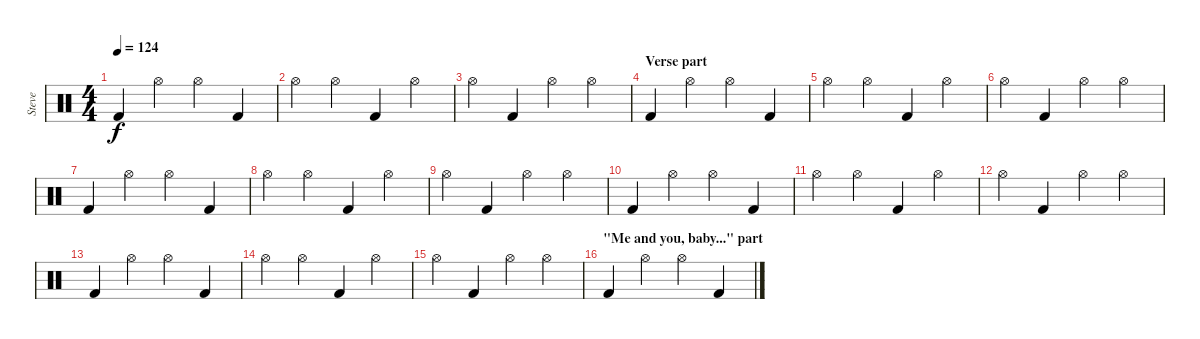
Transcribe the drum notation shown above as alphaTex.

\track ("Steve" "Steve") {instrument percussion}
\staff {score}
\articulation defaults
\ts (4 4)
\tempo 124
\clef neutral
\ks c "Kick (hit) 2".4{dy f} "Hi-Hat (open)".4 "Hi-Hat (open)".4 "Kick (hit) 2".4
|
"Hi-Hat (open)".4 "Hi-Hat (open)".4 "Kick (hit) 2".4 "Hi-Hat (open)".4 |
"Hi-Hat (open)".4 "Kick (hit) 2".4 "Hi-Hat (open)".4 "Hi-Hat (open)".4 |
\section ("" "Verse part")
"Kick (hit) 2".4 "Hi-Hat (open)".4 "Hi-Hat (open)".4 "Kick (hit) 2".4 |
"Hi-Hat (open)".4 "Hi-Hat (open)".4 "Kick (hit) 2".4 "Hi-Hat (open)".4 |
"Hi-Hat (open)".4 "Kick (hit) 2".4 "Hi-Hat (open)".4 "Hi-Hat (open)".4 |
"Kick (hit) 2".4 "Hi-Hat (open)".4 "Hi-Hat (open)".4 "Kick (hit) 2".4 |
"Hi-Hat (open)".4 "Hi-Hat (open)".4 "Kick (hit) 2".4 "Hi-Hat (open)".4 |
"Hi-Hat (open)".4 "Kick (hit) 2".4 "Hi-Hat (open)".4 "Hi-Hat (open)".4 |
"Kick (hit) 2".4 "Hi-Hat (open)".4 "Hi-Hat (open)".4 "Kick (hit) 2".4 |
"Hi-Hat (open)".4 "Hi-Hat (open)".4 "Kick (hit) 2".4 "Hi-Hat (open)".4 |
"Hi-Hat (open)".4 "Kick (hit) 2".4 "Hi-Hat (open)".4 "Hi-Hat (open)".4 |
"Kick (hit) 2".4 "Hi-Hat (open)".4 "Hi-Hat (open)".4 "Kick (hit) 2".4 |
"Hi-Hat (open)".4 "Hi-Hat (open)".4 "Kick (hit) 2".4 "Hi-Hat (open)".4 |
"Hi-Hat (open)".4 "Kick (hit) 2".4 "Hi-Hat (open)".4 "Hi-Hat (open)".4 |
\section ("" "\"Me and you, baby...\" part")
"Kick (hit) 2".4 "Hi-Hat (open)".4 "Hi-Hat (open)".4 "Kick (hit) 2".4
